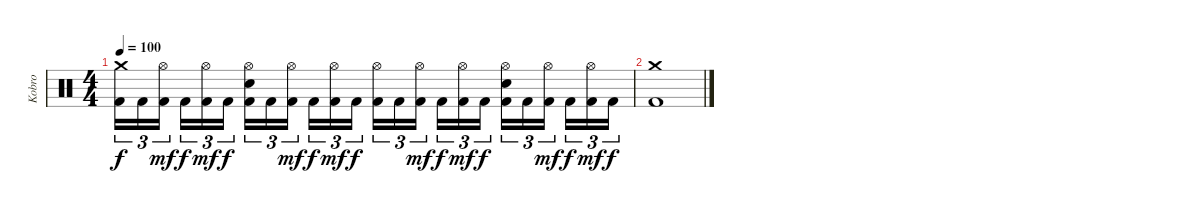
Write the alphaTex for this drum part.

\track ("Kobro" "Kobro") {instrument percussion}
\staff {score}
\articulation defaults
\ts (4 4)
\tempo 100
\clef neutral
\ks c
("Crash medium (hit)" "Kick (hit) 2").16{tu (3 2) dy f} "Kick (hit) 2".16{tu (3 2)} ("Hi-Hat (open)" "Kick (hit) 2").16{tu (3 2) dy mf} "Kick (hit) 2".16{tu (3 2) dy f} ("Hi-Hat (open)" "Kick (hit) 2").16{tu (3 2) dy mf} "Kick (hit) 2".16{tu (3 2) dy f} ("Hi-Hat (open)" "Electric Snare (hit)" "Kick (hit) 2").16{tu (3 2)} "Kick (hit) 2".16{tu (3 2)} ("Hi-Hat (open)" "Kick (hit) 2").16{tu (3 2) dy mf} "Kick (hit) 2".16{tu (3 2) dy f} ("Hi-Hat (open)" "Kick (hit) 2").16{tu (3 2) dy mf} "Kick (hit) 2".16{tu (3 2) dy f} ("Hi-Hat (open)" "Kick (hit) 2").16{tu (3 2)} "Kick (hit) 2".16{tu (3 2)} ("Hi-Hat (open)" "Kick (hit) 2").16{tu (3 2) dy mf} "Kick (hit) 2".16{tu (3 2) dy f} ("Hi-Hat (open)" "Kick (hit) 2").16{tu (3 2) dy mf} "Kick (hit) 2".16{tu (3 2) dy f} ("Hi-Hat (open)" "Electric Snare (hit)" "Kick (hit) 2").16{tu (3 2)} "Kick (hit) 2".16{tu (3 2)} ("Hi-Hat (open)" "Kick (hit) 2").16{tu (3 2) dy mf} "Kick (hit) 2".16{tu (3 2) dy f} ("Hi-Hat (open)" "Kick (hit) 2").16{tu (3 2) dy mf} "Kick (hit) 2".16{tu (3 2) dy f} |
("Crash medium (hit)" "Kick (hit) 2").1
